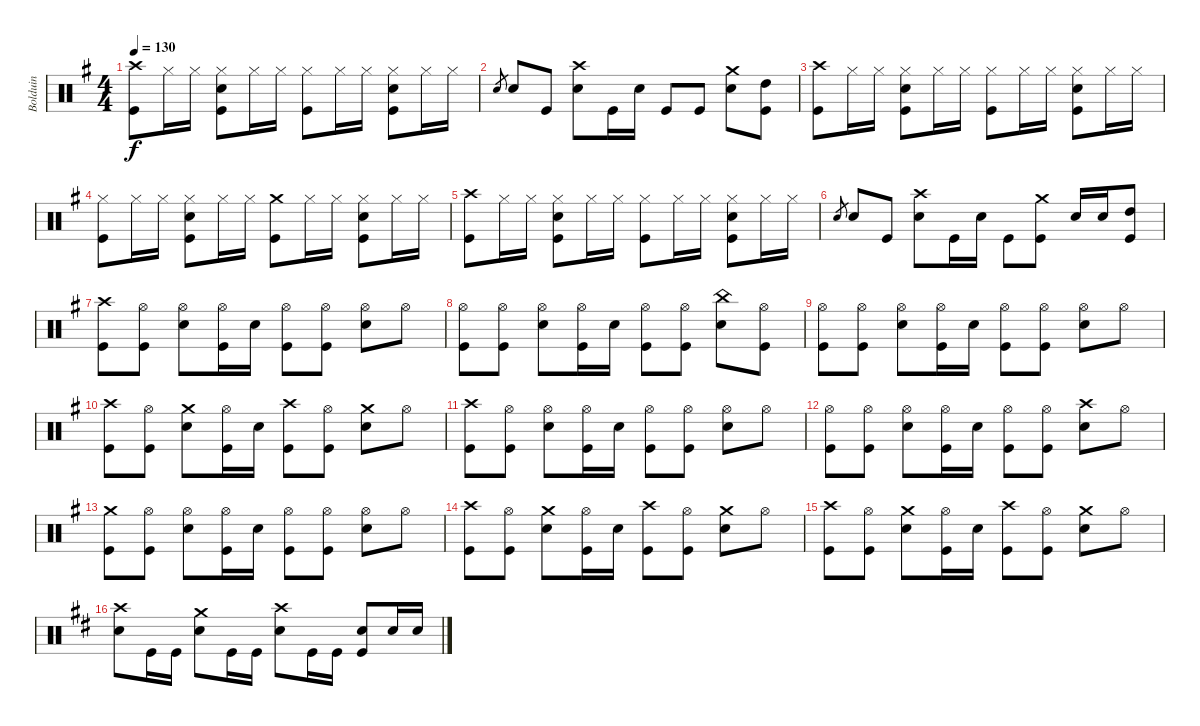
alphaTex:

\track ("Bolduin" "Bolduin") {instrument percussion}
\staff {score}
\articulation defaults
\ts (4 4)
\tempo 130
\clef neutral
\ks eminor
("Crash high (hit)" "Kick (hit)").8{dy f} "Hi-Hat (closed)".16 "Hi-Hat (closed)".16 ("Hi-Hat (closed)" "Snare (hit) 2" "Kick (hit)").8 "Hi-Hat (closed)".16 "Hi-Hat (closed)".16 ("Hi-Hat (closed)" "Kick (hit)").8 "Hi-Hat (closed)".16 "Hi-Hat (closed)".16 ("Hi-Hat (closed)" "Snare (hit) 2" "Kick (hit)").8 "Hi-Hat (closed)".16 "Hi-Hat (closed)".16 |
"Snare (hit) 2".8{gr} "Snare (hit) 2".8 "Kick (hit)".8 ("Crash high (hit)" "Snare (hit) 2").8 "Kick (hit)".16 "Snare (hit) 2".16 "Kick (hit)".8 "Kick (hit)".8 ("Snare (hit) 2" "Crash medium (hit)").8 ("Kick (hit)" "High Tom (hit)").8 |
("Crash high (hit)" "Kick (hit)").8 "Hi-Hat (closed)".16 "Hi-Hat (closed)".16 ("Hi-Hat (closed)" "Snare (hit) 2" "Kick (hit)").8 "Hi-Hat (closed)".16 "Hi-Hat (closed)".16 ("Hi-Hat (closed)" "Kick (hit)").8 "Hi-Hat (closed)".16 "Hi-Hat (closed)".16 ("Hi-Hat (closed)" "Snare (hit) 2" "Kick (hit)").8 "Hi-Hat (closed)".16 "Hi-Hat (closed)".16 |
("Hi-Hat (closed)" "Kick (hit)").8 "Hi-Hat (closed)".16 "Hi-Hat (closed)".16 ("Hi-Hat (closed)" "Snare (hit) 2" "Kick (hit)").8 "Hi-Hat (closed)".16 "Hi-Hat (closed)".16 ("Crash medium (hit)" "Kick (hit)").8 "Hi-Hat (closed)".16 "Hi-Hat (closed)".16 ("Hi-Hat (closed)" "Snare (hit) 2" "Kick (hit)").8 "Hi-Hat (closed)".16 "Hi-Hat (closed)".16 |
("Crash high (hit)" "Kick (hit)").8 "Hi-Hat (closed)".16 "Hi-Hat (closed)".16 ("Hi-Hat (closed)" "Snare (hit) 2" "Kick (hit)").8 "Hi-Hat (closed)".16 "Hi-Hat (closed)".16 ("Hi-Hat (closed)" "Kick (hit)").8 "Hi-Hat (closed)".16 "Hi-Hat (closed)".16 ("Hi-Hat (closed)" "Snare (hit) 2" "Kick (hit)").8 "Hi-Hat (closed)".16 "Hi-Hat (closed)".16 |
"Snare (hit) 2".8{gr} "Snare (hit) 2".8 "Kick (hit)".8 ("Crash high (hit)" "Snare (hit) 2").8 "Kick (hit)".16 "Snare (hit) 2".16 "Kick (hit)".8 ("Kick (hit)" "Crash medium (hit)").8 "Snare (hit) 2".16 "Snare (hit) 2".16 ("Kick (hit)" "High Tom (hit)").8 |
("Crash high (hit)" "Kick (hit)").8 ("Hi-Hat (open)" "Kick (hit)").8 ("Hi-Hat (open)" "Snare (hit) 2").8 ("Hi-Hat (open)" "Kick (hit)").16 "Snare (hit) 2".16 ("Hi-Hat (open)" "Kick (hit)").8 ("Hi-Hat (open)" "Kick (hit)").8 ("Hi-Hat (open)" "Snare (hit) 2").8 "Hi-Hat (open)".8 |
("Hi-Hat (open)" "Kick (hit)").8 ("Hi-Hat (open)" "Kick (hit)").8 ("Hi-Hat (open)" "Snare (hit) 2").8 ("Hi-Hat (open)" "Kick (hit)").16 "Snare (hit) 2".16 ("Hi-Hat (open)" "Kick (hit)").8 ("Hi-Hat (open)" "Kick (hit)").8 ("China (hit)" "Snare (hit) 2").8 ("Hi-Hat (open)" "Kick (hit)").8 |
("Hi-Hat (open)" "Kick (hit)").8 ("Hi-Hat (open)" "Kick (hit)").8 ("Hi-Hat (open)" "Snare (hit) 2").8 ("Hi-Hat (open)" "Kick (hit)").16 "Snare (hit) 2".16 ("Hi-Hat (open)" "Kick (hit)").8 ("Hi-Hat (open)" "Kick (hit)").8 ("Hi-Hat (open)" "Snare (hit) 2").8 "Hi-Hat (open)".8 |
("Crash high (hit)" "Kick (hit)").8 ("Hi-Hat (open)" "Kick (hit)").8 ("Crash medium (hit)" "Snare (hit) 2").8 ("Hi-Hat (open)" "Kick (hit)").16 "Snare (hit) 2".16 ("Crash high (hit)" "Kick (hit)").8 ("Hi-Hat (open)" "Kick (hit)").8 ("Crash medium (hit)" "Snare (hit) 2").8 "Hi-Hat (open)".8 |
("Crash high (hit)" "Kick (hit)").8 ("Hi-Hat (open)" "Kick (hit)").8 ("Hi-Hat (open)" "Snare (hit) 2").8 ("Hi-Hat (open)" "Kick (hit)").16 "Snare (hit) 2".16 ("Hi-Hat (open)" "Kick (hit)").8 ("Hi-Hat (open)" "Kick (hit)").8 ("Hi-Hat (open)" "Snare (hit) 2").8 "Hi-Hat (open)".8 |
("Hi-Hat (open)" "Kick (hit)").8 ("Hi-Hat (open)" "Kick (hit)").8 ("Hi-Hat (open)" "Snare (hit) 2").8 ("Hi-Hat (open)" "Kick (hit)").16 "Snare (hit) 2".16 ("Hi-Hat (open)" "Kick (hit)").8 ("Hi-Hat (open)" "Kick (hit)").8 ("Crash high (hit)" "Snare (hit) 2").8 "Hi-Hat (open)".8 |
("Crash medium (hit)" "Kick (hit)").8 ("Hi-Hat (open)" "Kick (hit)").8 ("Hi-Hat (open)" "Snare (hit) 2").8 ("Hi-Hat (open)" "Kick (hit)").16 "Snare (hit) 2".16 ("Hi-Hat (open)" "Kick (hit)").8 ("Hi-Hat (open)" "Kick (hit)").8 ("Hi-Hat (open)" "Snare (hit) 2").8 "Hi-Hat (open)".8 |
("Crash high (hit)" "Kick (hit)").8 ("Hi-Hat (open)" "Kick (hit)").8 ("Crash medium (hit)" "Snare (hit) 2").8 ("Hi-Hat (open)" "Kick (hit)").16 "Snare (hit) 2".16 ("Crash high (hit)" "Kick (hit)").8 ("Hi-Hat (open)" "Kick (hit)").8 ("Crash medium (hit)" "Snare (hit) 2").8 "Hi-Hat (open)".8 |
("Crash high (hit)" "Kick (hit)").8 ("Hi-Hat (open)" "Kick (hit)").8 ("Crash medium (hit)" "Snare (hit) 2").8 ("Hi-Hat (open)" "Kick (hit)").16 "Snare (hit) 2".16 ("Crash high (hit)" "Kick (hit)").8 ("Hi-Hat (open)" "Kick (hit)").8 ("Crash medium (hit)" "Snare (hit) 2").8 "Hi-Hat (open)".8 |
\ks bminor
("Crash high (hit)" "Snare (hit) 2").8 "Kick (hit)".16 "Kick (hit)".16 ("Crash medium (hit)" "Snare (hit) 2").8 "Kick (hit)".16 "Kick (hit)".16 ("Crash high (hit)" "Snare (hit) 2").8 "Kick (hit)".16 "Kick (hit)".16 ("Kick (hit)" "Snare (hit) 2").8 "Snare (hit) 2".16 "Snare (hit) 2".16
